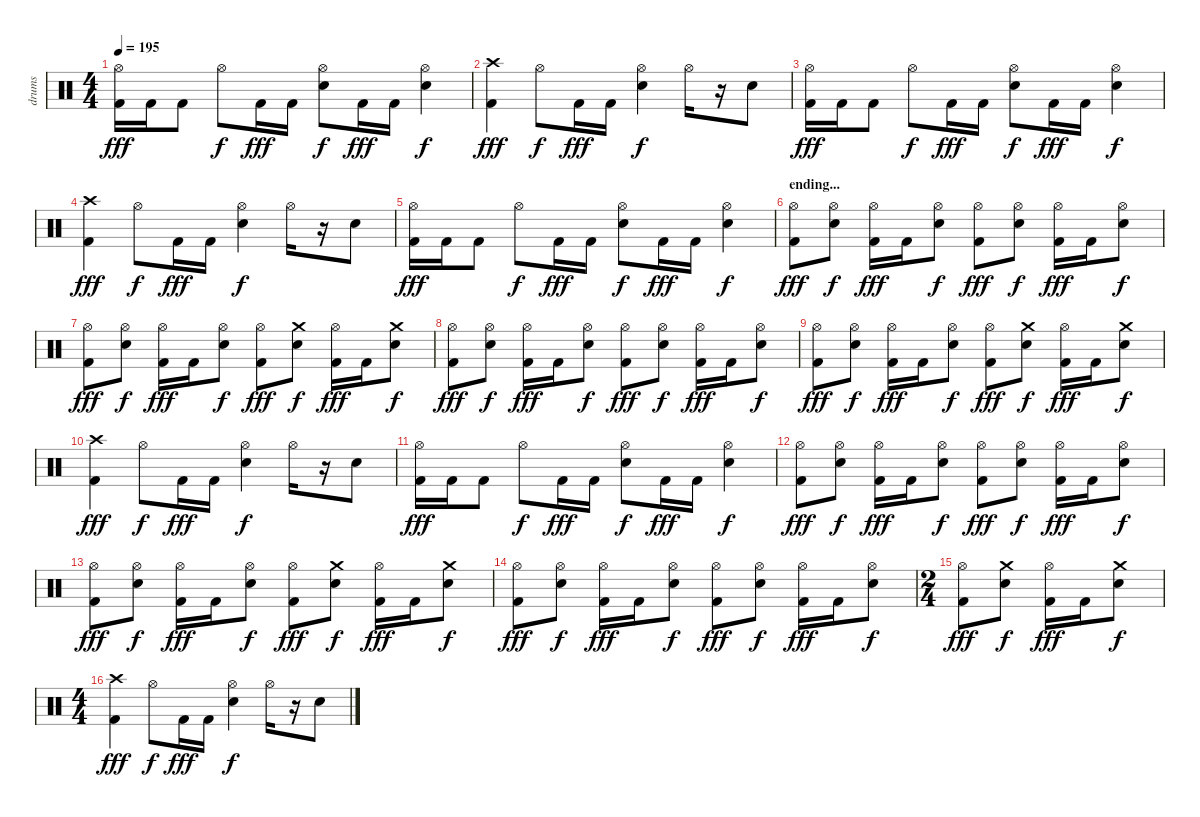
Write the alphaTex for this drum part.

\track ("drums" "drums") {instrument percussion}
\staff {score}
\articulation defaults
\ts (4 4)
\tempo 195
\clef neutral
\ks c
("Hi-Hat (open)" "Kick (hit) 2").16{dy fff} "Kick (hit) 2".16 "Kick (hit) 2".8 "Hi-Hat (open)".8{dy f} "Kick (hit) 2".16{dy fff} "Kick (hit) 2".16 ("Hi-Hat (open)" "Snare (hit) 2").8{dy f} "Kick (hit) 2".16{dy fff} "Kick (hit) 2".16 ("Hi-Hat (open)" "Snare (hit) 2").4{dy f} |
("Crash high (hit)" "Kick (hit) 2").4{dy fff} "Hi-Hat (open)".8{dy f} "Kick (hit) 2".16{dy fff} "Kick (hit) 2".16 ("Hi-Hat (open)" "Snare (hit) 2").4{dy f} "Hi-Hat (open)".16 r.16 "Snare (hit) 2".8 |
("Hi-Hat (open)" "Kick (hit) 2").16{dy fff} "Kick (hit) 2".16 "Kick (hit) 2".8 "Hi-Hat (open)".8{dy f} "Kick (hit) 2".16{dy fff} "Kick (hit) 2".16 ("Hi-Hat (open)" "Snare (hit) 2").8{dy f} "Kick (hit) 2".16{dy fff} "Kick (hit) 2".16 ("Hi-Hat (open)" "Snare (hit) 2").4{dy f} |
("Crash high (hit)" "Kick (hit) 2").4{dy fff} "Hi-Hat (open)".8{dy f} "Kick (hit) 2".16{dy fff} "Kick (hit) 2".16 ("Hi-Hat (open)" "Snare (hit) 2").4{dy f} "Hi-Hat (open)".16 r.16 "Snare (hit) 2".8 |
("Hi-Hat (open)" "Kick (hit) 2").16{dy fff} "Kick (hit) 2".16 "Kick (hit) 2".8 "Hi-Hat (open)".8{dy f} "Kick (hit) 2".16{dy fff} "Kick (hit) 2".16 ("Hi-Hat (open)" "Snare (hit) 2").8{dy f} "Kick (hit) 2".16{dy fff} "Kick (hit) 2".16 ("Hi-Hat (open)" "Snare (hit) 2").4{dy f} |
\section ("" "ending...")
("Hi-Hat (open)" "Kick (hit) 2").8{dy fff} ("Hi-Hat (open)" "Snare (hit) 2").8{dy f} ("Hi-Hat (open)" "Kick (hit) 2").16{dy fff} "Kick (hit) 2".16 ("Hi-Hat (open)" "Snare (hit) 2").8{dy f} ("Hi-Hat (open)" "Kick (hit) 2").8{dy fff} ("Hi-Hat (open)" "Snare (hit) 2").8{dy f} ("Hi-Hat (open)" "Kick (hit) 2").16{dy fff} "Kick (hit) 2".16 ("Hi-Hat (open)" "Snare (hit) 2").8{dy f} |
("Hi-Hat (open)" "Kick (hit) 2").8{dy fff} ("Hi-Hat (open)" "Snare (hit) 2").8{dy f} ("Hi-Hat (open)" "Kick (hit) 2").16{dy fff} "Kick (hit) 2".16 ("Hi-Hat (open)" "Snare (hit) 2").8{dy f} ("Hi-Hat (open)" "Kick (hit) 2").8{dy fff} ("Crash medium (hit)" "Snare (hit) 2").8{dy f} ("Hi-Hat (open)" "Kick (hit) 2").16{dy fff} "Kick (hit) 2".16 ("Crash medium (hit)" "Snare (hit) 2").8{dy f} |
("Hi-Hat (open)" "Kick (hit) 2").8{dy fff} ("Hi-Hat (open)" "Snare (hit) 2").8{dy f} ("Hi-Hat (open)" "Kick (hit) 2").16{dy fff} "Kick (hit) 2".16 ("Hi-Hat (open)" "Snare (hit) 2").8{dy f} ("Hi-Hat (open)" "Kick (hit) 2").8{dy fff} ("Hi-Hat (open)" "Snare (hit) 2").8{dy f} ("Hi-Hat (open)" "Kick (hit) 2").16{dy fff} "Kick (hit) 2".16 ("Hi-Hat (open)" "Snare (hit) 2").8{dy f} |
("Hi-Hat (open)" "Kick (hit) 2").8{dy fff} ("Hi-Hat (open)" "Snare (hit) 2").8{dy f} ("Hi-Hat (open)" "Kick (hit) 2").16{dy fff} "Kick (hit) 2".16 ("Hi-Hat (open)" "Snare (hit) 2").8{dy f} ("Hi-Hat (open)" "Kick (hit) 2").8{dy fff} ("Crash medium (hit)" "Snare (hit) 2").8{dy f} ("Hi-Hat (open)" "Kick (hit) 2").16{dy fff} "Kick (hit) 2".16 ("Crash medium (hit)" "Snare (hit) 2").8{dy f} |
("Crash high (hit)" "Kick (hit) 2").4{dy fff} "Hi-Hat (open)".8{dy f} "Kick (hit) 2".16{dy fff} "Kick (hit) 2".16 ("Hi-Hat (open)" "Snare (hit) 2").4{dy f} "Hi-Hat (open)".16 r.16 "Snare (hit) 2".8 |
("Hi-Hat (open)" "Kick (hit) 2").16{dy fff} "Kick (hit) 2".16 "Kick (hit) 2".8 "Hi-Hat (open)".8{dy f} "Kick (hit) 2".16{dy fff} "Kick (hit) 2".16 ("Hi-Hat (open)" "Snare (hit) 2").8{dy f} "Kick (hit) 2".16{dy fff} "Kick (hit) 2".16 ("Hi-Hat (open)" "Snare (hit) 2").4{dy f} |
("Hi-Hat (open)" "Kick (hit) 2").8{dy fff} ("Hi-Hat (open)" "Snare (hit) 2").8{dy f} ("Hi-Hat (open)" "Kick (hit) 2").16{dy fff} "Kick (hit) 2".16 ("Hi-Hat (open)" "Snare (hit) 2").8{dy f} ("Hi-Hat (open)" "Kick (hit) 2").8{dy fff} ("Hi-Hat (open)" "Snare (hit) 2").8{dy f} ("Hi-Hat (open)" "Kick (hit) 2").16{dy fff} "Kick (hit) 2".16 ("Hi-Hat (open)" "Snare (hit) 2").8{dy f} |
("Hi-Hat (open)" "Kick (hit) 2").8{dy fff} ("Hi-Hat (open)" "Snare (hit) 2").8{dy f} ("Hi-Hat (open)" "Kick (hit) 2").16{dy fff} "Kick (hit) 2".16 ("Hi-Hat (open)" "Snare (hit) 2").8{dy f} ("Hi-Hat (open)" "Kick (hit) 2").8{dy fff} ("Crash medium (hit)" "Snare (hit) 2").8{dy f} ("Hi-Hat (open)" "Kick (hit) 2").16{dy fff} "Kick (hit) 2".16 ("Crash medium (hit)" "Snare (hit) 2").8{dy f} |
("Hi-Hat (open)" "Kick (hit) 2").8{dy fff} ("Hi-Hat (open)" "Snare (hit) 2").8{dy f} ("Hi-Hat (open)" "Kick (hit) 2").16{dy fff} "Kick (hit) 2".16 ("Hi-Hat (open)" "Snare (hit) 2").8{dy f} ("Hi-Hat (open)" "Kick (hit) 2").8{dy fff} ("Hi-Hat (open)" "Snare (hit) 2").8{dy f} ("Hi-Hat (open)" "Kick (hit) 2").16{dy fff} "Kick (hit) 2".16 ("Hi-Hat (open)" "Snare (hit) 2").8{dy f} |
\ts (2 4)
("Hi-Hat (open)" "Kick (hit) 2").8{dy fff} ("Crash medium (hit)" "Snare (hit) 2").8{dy f} ("Hi-Hat (open)" "Kick (hit) 2").16{dy fff} "Kick (hit) 2".16 ("Crash medium (hit)" "Snare (hit) 2").8{dy f} |
\ts (4 4)
("Crash high (hit)" "Kick (hit) 2").4{dy fff} "Hi-Hat (open)".8{dy f} "Kick (hit) 2".16{dy fff} "Kick (hit) 2".16 ("Hi-Hat (open)" "Snare (hit) 2").4{dy f} "Hi-Hat (open)".16 r.16 "Snare (hit) 2".8
